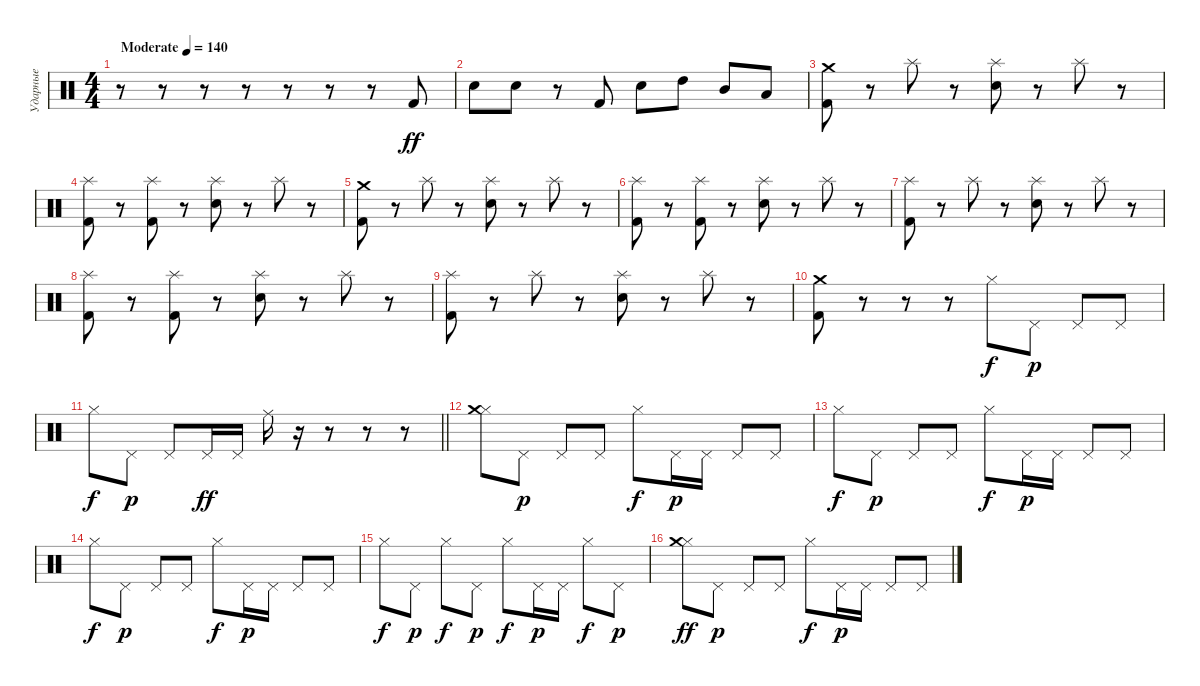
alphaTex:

\track ("Ударные" "Ударные") {instrument percussion}
\staff {score}
\articulation defaults
\ts (4 4)
\tempo (140 "Moderate")
\clef neutral
\ks c
r.8{dy ff} r.8 r.8 r.8 r.8 r.8 r.8 "Kick (hit) 2".8 |
"Snare (hit) 2".8 "Snare (hit) 2".8 r.8 "Kick (hit) 2".8 "Snare (hit) 2".8 "High Tom (hit)".8 "Mid Tom (hit)".8 "Low Tom (hit)".8 |
("Kick (hit) 2" "Crash medium (hit)").8 r.8 "Splash (hit)".8 r.8 ("Snare (hit) 2" "Splash (hit)").8 r.8 "Splash (hit)".8 r.8 |
("Kick (hit) 2" "Splash (hit)").8 r.8 ("Kick (hit) 2" "Splash (hit)").8 r.8 ("Snare (hit) 2" "Splash (hit)").8 r.8 "Splash (hit)".8 r.8 |
("Kick (hit) 2" "Crash medium (hit)").8 r.8 "Splash (hit)".8 r.8 ("Snare (hit) 2" "Splash (hit)").8 r.8 "Splash (hit)".8 r.8 |
("Kick (hit) 2" "Splash (hit)").8 r.8 ("Kick (hit) 2" "Splash (hit)").8 r.8 ("Snare (hit) 2" "Splash (hit)").8 r.8 "Splash (hit)".8 r.8 |
("Kick (hit) 2" "Splash (hit)").8 r.8 "Splash (hit)".8 r.8 ("Snare (hit) 2" "Splash (hit)").8 r.8 "Splash (hit)".8 r.8 |
("Kick (hit) 2" "Splash (hit)").8 r.8 ("Kick (hit) 2" "Splash (hit)").8 r.8 ("Snare (hit) 2" "Splash (hit)").8 r.8 "Splash (hit)".8 r.8 |
("Kick (hit) 2" "Splash (hit)").8 r.8 "Splash (hit)".8 r.8 ("Snare (hit) 2" "Splash (hit)").8 r.8 "Splash (hit)".8 r.8 |
("Kick (hit) 2" "Crash medium (hit)").8 r.8 r.8 r.8 "Hi-Hat (closed)".8{dy f} "Pedal Hi-Hat (hit)".8{dy p} "Pedal Hi-Hat (hit)".8 "Pedal Hi-Hat (hit)".8 |
\barLineRight lightlight "Hi-Hat (closed)".8{dy f} "Pedal Hi-Hat (hit)".8{dy p} "Pedal Hi-Hat (hit)".8 "Pedal Hi-Hat (hit)".16{dy ff} "Pedal Hi-Hat (hit)".16 "Ride (middle)".16
r.16 r.8 r.8 r.8 |
\section ("" "")
("Hi-Hat (closed)" "Crash medium (hit)").8 "Pedal Hi-Hat (hit)".8{dy p} "Pedal Hi-Hat (hit)".8 "Pedal Hi-Hat (hit)".8 "Hi-Hat (closed)".8{dy f} "Pedal Hi-Hat (hit)".16{dy p} "Pedal Hi-Hat (hit)".16 "Pedal Hi-Hat (hit)".8 "Pedal Hi-Hat (hit)".8 |
"Hi-Hat (closed)".8{dy f} "Pedal Hi-Hat (hit)".8{dy p} "Pedal Hi-Hat (hit)".8 "Pedal Hi-Hat (hit)".8 "Hi-Hat (closed)".8{dy f} "Pedal Hi-Hat (hit)".16{dy p} "Pedal Hi-Hat (hit)".16 "Pedal Hi-Hat (hit)".8 "Pedal Hi-Hat (hit)".8 |
"Hi-Hat (closed)".8{dy f} "Pedal Hi-Hat (hit)".8{dy p} "Pedal Hi-Hat (hit)".8 "Pedal Hi-Hat (hit)".8 "Hi-Hat (closed)".8{dy f} "Pedal Hi-Hat (hit)".16{dy p} "Pedal Hi-Hat (hit)".16 "Pedal Hi-Hat (hit)".8 "Pedal Hi-Hat (hit)".8 |
"Hi-Hat (closed)".8{dy f} "Pedal Hi-Hat (hit)".8{dy p} "Hi-Hat (closed)".8{dy f} "Pedal Hi-Hat (hit)".8{dy p} "Hi-Hat (closed)".8{dy f} "Pedal Hi-Hat (hit)".16{dy p} "Pedal Hi-Hat (hit)".16 "Hi-Hat (closed)".8{dy f} "Pedal Hi-Hat (hit)".8{dy p} |
("Hi-Hat (closed)" "Crash medium (hit)").8{dy ff} "Pedal Hi-Hat (hit)".8{dy p} "Pedal Hi-Hat (hit)".8 "Pedal Hi-Hat (hit)".8 "Hi-Hat (closed)".8{dy f} "Pedal Hi-Hat (hit)".16{dy p} "Pedal Hi-Hat (hit)".16 "Pedal Hi-Hat (hit)".8 "Pedal Hi-Hat (hit)".8
